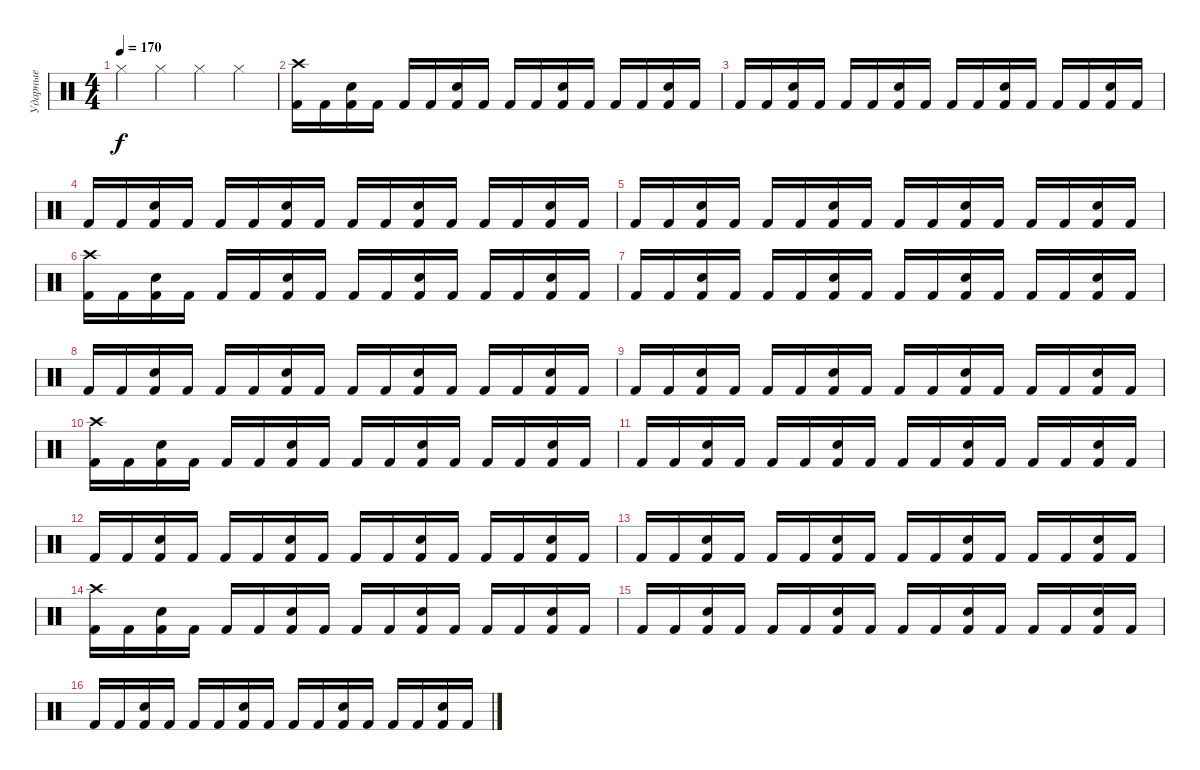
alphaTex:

\track ("Ударные" "Ударные") {instrument percussion}
\staff {score}
\articulation defaults
\ts (4 4)
\tempo 170
\clef neutral
\ks c "Hi-Hat (closed)".4{dy f} "Hi-Hat (closed)".4 "Hi-Hat (closed)".4 "Hi-Hat (closed)".4
|
("Kick (hit) 2" "Crash high (hit)").16 "Kick (hit) 2".16 ("Kick (hit) 2" "Electric Snare (hit)").16 "Kick (hit) 2".16 "Kick (hit) 2".16 "Kick (hit) 2".16 ("Kick (hit) 2" "Electric Snare (hit)").16 "Kick (hit) 2".16 "Kick (hit) 2".16 "Kick (hit) 2".16 ("Kick (hit) 2" "Electric Snare (hit)").16 "Kick (hit) 2".16 "Kick (hit) 2".16 "Kick (hit) 2".16 ("Kick (hit) 2" "Electric Snare (hit)").16 "Kick (hit) 2".16 |
"Kick (hit) 2".16 "Kick (hit) 2".16 ("Kick (hit) 2" "Electric Snare (hit)").16 "Kick (hit) 2".16 "Kick (hit) 2".16 "Kick (hit) 2".16 ("Kick (hit) 2" "Electric Snare (hit)").16 "Kick (hit) 2".16 "Kick (hit) 2".16 "Kick (hit) 2".16 ("Kick (hit) 2" "Electric Snare (hit)").16 "Kick (hit) 2".16 "Kick (hit) 2".16 "Kick (hit) 2".16 ("Kick (hit) 2" "Electric Snare (hit)").16 "Kick (hit) 2".16 |
"Kick (hit) 2".16 "Kick (hit) 2".16 ("Kick (hit) 2" "Electric Snare (hit)").16 "Kick (hit) 2".16 "Kick (hit) 2".16 "Kick (hit) 2".16 ("Kick (hit) 2" "Electric Snare (hit)").16 "Kick (hit) 2".16 "Kick (hit) 2".16 "Kick (hit) 2".16 ("Kick (hit) 2" "Electric Snare (hit)").16 "Kick (hit) 2".16 "Kick (hit) 2".16 "Kick (hit) 2".16 ("Kick (hit) 2" "Electric Snare (hit)").16 "Kick (hit) 2".16 |
"Kick (hit) 2".16 "Kick (hit) 2".16 ("Kick (hit) 2" "Electric Snare (hit)").16 "Kick (hit) 2".16 "Kick (hit) 2".16 "Kick (hit) 2".16 ("Kick (hit) 2" "Electric Snare (hit)").16 "Kick (hit) 2".16 "Kick (hit) 2".16 "Kick (hit) 2".16 ("Kick (hit) 2" "Electric Snare (hit)").16 "Kick (hit) 2".16 "Kick (hit) 2".16 "Kick (hit) 2".16 ("Kick (hit) 2" "Electric Snare (hit)").16 "Kick (hit) 2".16 |
("Kick (hit) 2" "Crash high (hit)").16 "Kick (hit) 2".16 ("Kick (hit) 2" "Electric Snare (hit)").16 "Kick (hit) 2".16 "Kick (hit) 2".16 "Kick (hit) 2".16 ("Kick (hit) 2" "Electric Snare (hit)").16 "Kick (hit) 2".16 "Kick (hit) 2".16 "Kick (hit) 2".16 ("Kick (hit) 2" "Electric Snare (hit)").16 "Kick (hit) 2".16 "Kick (hit) 2".16 "Kick (hit) 2".16 ("Kick (hit) 2" "Electric Snare (hit)").16 "Kick (hit) 2".16 |
"Kick (hit) 2".16 "Kick (hit) 2".16 ("Kick (hit) 2" "Electric Snare (hit)").16 "Kick (hit) 2".16 "Kick (hit) 2".16 "Kick (hit) 2".16 ("Kick (hit) 2" "Electric Snare (hit)").16 "Kick (hit) 2".16 "Kick (hit) 2".16 "Kick (hit) 2".16 ("Kick (hit) 2" "Electric Snare (hit)").16 "Kick (hit) 2".16 "Kick (hit) 2".16 "Kick (hit) 2".16 ("Kick (hit) 2" "Electric Snare (hit)").16 "Kick (hit) 2".16 |
"Kick (hit) 2".16 "Kick (hit) 2".16 ("Kick (hit) 2" "Electric Snare (hit)").16 "Kick (hit) 2".16 "Kick (hit) 2".16 "Kick (hit) 2".16 ("Kick (hit) 2" "Electric Snare (hit)").16 "Kick (hit) 2".16 "Kick (hit) 2".16 "Kick (hit) 2".16 ("Kick (hit) 2" "Electric Snare (hit)").16 "Kick (hit) 2".16 "Kick (hit) 2".16 "Kick (hit) 2".16 ("Kick (hit) 2" "Electric Snare (hit)").16 "Kick (hit) 2".16 |
"Kick (hit) 2".16 "Kick (hit) 2".16 ("Kick (hit) 2" "Electric Snare (hit)").16 "Kick (hit) 2".16 "Kick (hit) 2".16 "Kick (hit) 2".16 ("Kick (hit) 2" "Electric Snare (hit)").16 "Kick (hit) 2".16 "Kick (hit) 2".16 "Kick (hit) 2".16 ("Kick (hit) 2" "Electric Snare (hit)").16 "Kick (hit) 2".16 "Kick (hit) 2".16 "Kick (hit) 2".16 ("Kick (hit) 2" "Electric Snare (hit)").16 "Kick (hit) 2".16 |
("Kick (hit) 2" "Crash high (hit)").16 "Kick (hit) 2".16 ("Kick (hit) 2" "Electric Snare (hit)").16 "Kick (hit) 2".16 "Kick (hit) 2".16 "Kick (hit) 2".16 ("Kick (hit) 2" "Electric Snare (hit)").16 "Kick (hit) 2".16 "Kick (hit) 2".16 "Kick (hit) 2".16 ("Kick (hit) 2" "Electric Snare (hit)").16 "Kick (hit) 2".16 "Kick (hit) 2".16 "Kick (hit) 2".16 ("Kick (hit) 2" "Electric Snare (hit)").16 "Kick (hit) 2".16 |
"Kick (hit) 2".16 "Kick (hit) 2".16 ("Kick (hit) 2" "Electric Snare (hit)").16 "Kick (hit) 2".16 "Kick (hit) 2".16 "Kick (hit) 2".16 ("Kick (hit) 2" "Electric Snare (hit)").16 "Kick (hit) 2".16 "Kick (hit) 2".16 "Kick (hit) 2".16 ("Kick (hit) 2" "Electric Snare (hit)").16 "Kick (hit) 2".16 "Kick (hit) 2".16 "Kick (hit) 2".16 ("Kick (hit) 2" "Electric Snare (hit)").16 "Kick (hit) 2".16 |
"Kick (hit) 2".16 "Kick (hit) 2".16 ("Kick (hit) 2" "Electric Snare (hit)").16 "Kick (hit) 2".16 "Kick (hit) 2".16 "Kick (hit) 2".16 ("Kick (hit) 2" "Electric Snare (hit)").16 "Kick (hit) 2".16 "Kick (hit) 2".16 "Kick (hit) 2".16 ("Kick (hit) 2" "Electric Snare (hit)").16 "Kick (hit) 2".16 "Kick (hit) 2".16 "Kick (hit) 2".16 ("Kick (hit) 2" "Electric Snare (hit)").16 "Kick (hit) 2".16 |
"Kick (hit) 2".16 "Kick (hit) 2".16 ("Kick (hit) 2" "Electric Snare (hit)").16 "Kick (hit) 2".16 "Kick (hit) 2".16 "Kick (hit) 2".16 ("Kick (hit) 2" "Electric Snare (hit)").16 "Kick (hit) 2".16 "Kick (hit) 2".16 "Kick (hit) 2".16 ("Kick (hit) 2" "Electric Snare (hit)").16 "Kick (hit) 2".16 "Kick (hit) 2".16 "Kick (hit) 2".16 ("Kick (hit) 2" "Electric Snare (hit)").16 "Kick (hit) 2".16 |
("Kick (hit) 2" "Crash high (hit)").16 "Kick (hit) 2".16 ("Kick (hit) 2" "Electric Snare (hit)").16 "Kick (hit) 2".16 "Kick (hit) 2".16 "Kick (hit) 2".16 ("Kick (hit) 2" "Electric Snare (hit)").16 "Kick (hit) 2".16 "Kick (hit) 2".16 "Kick (hit) 2".16 ("Kick (hit) 2" "Electric Snare (hit)").16 "Kick (hit) 2".16 "Kick (hit) 2".16 "Kick (hit) 2".16 ("Kick (hit) 2" "Electric Snare (hit)").16 "Kick (hit) 2".16 |
"Kick (hit) 2".16 "Kick (hit) 2".16 ("Kick (hit) 2" "Electric Snare (hit)").16 "Kick (hit) 2".16 "Kick (hit) 2".16 "Kick (hit) 2".16 ("Kick (hit) 2" "Electric Snare (hit)").16 "Kick (hit) 2".16 "Kick (hit) 2".16 "Kick (hit) 2".16 ("Kick (hit) 2" "Electric Snare (hit)").16 "Kick (hit) 2".16 "Kick (hit) 2".16 "Kick (hit) 2".16 ("Kick (hit) 2" "Electric Snare (hit)").16 "Kick (hit) 2".16 |
"Kick (hit) 2".16 "Kick (hit) 2".16 ("Kick (hit) 2" "Electric Snare (hit)").16 "Kick (hit) 2".16 "Kick (hit) 2".16 "Kick (hit) 2".16 ("Kick (hit) 2" "Electric Snare (hit)").16 "Kick (hit) 2".16 "Kick (hit) 2".16 "Kick (hit) 2".16 ("Kick (hit) 2" "Electric Snare (hit)").16 "Kick (hit) 2".16 "Kick (hit) 2".16 "Kick (hit) 2".16 ("Kick (hit) 2" "Electric Snare (hit)").16 "Kick (hit) 2".16
